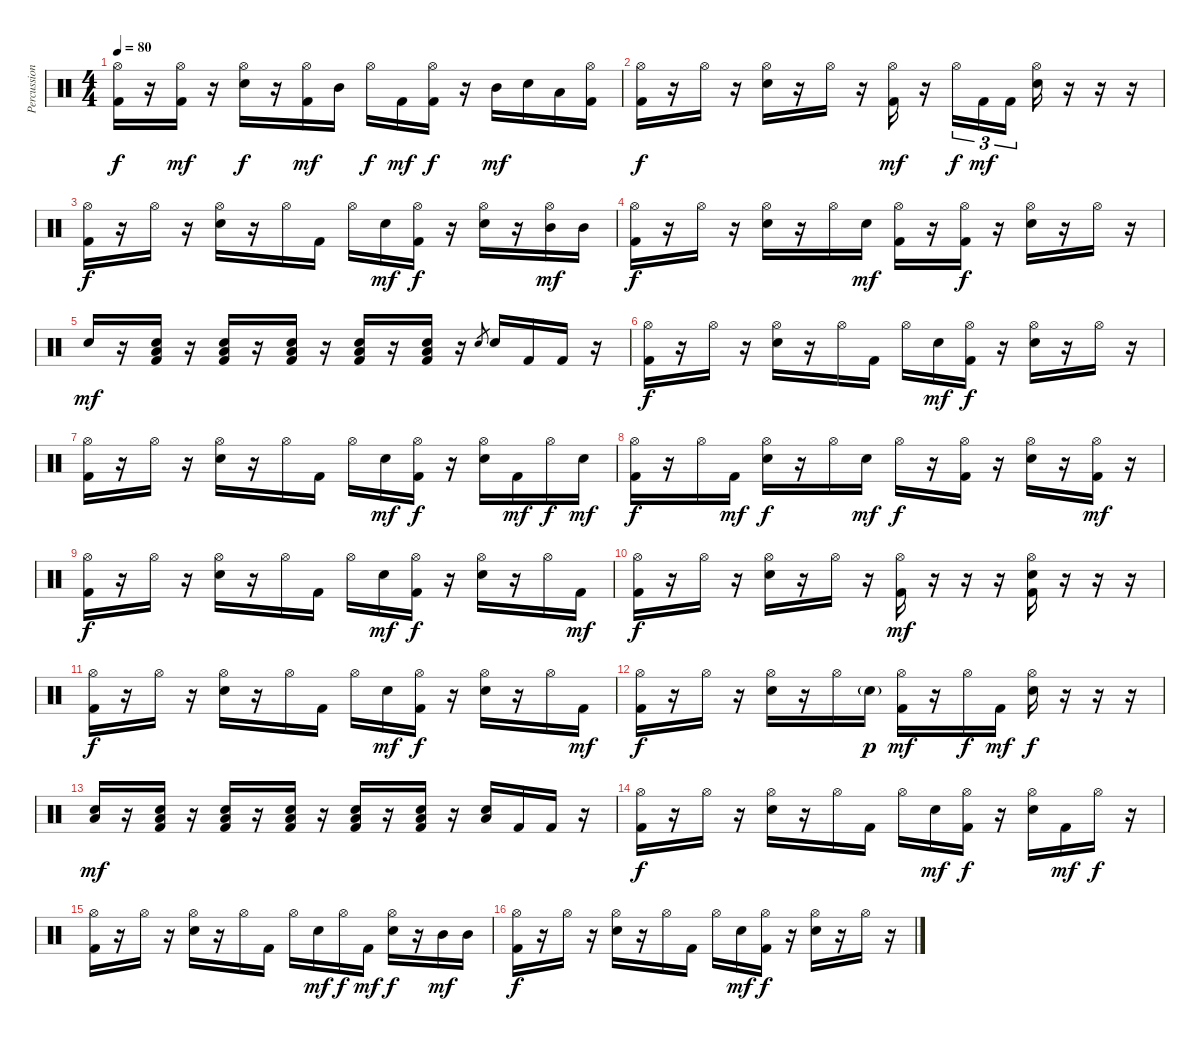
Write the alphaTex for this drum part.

\track ("Percussion" "Percussion") {instrument percussion}
\staff {score}
\articulation defaults
\ts (4 4)
\tempo 80
\clef neutral
\ks c
("Hi-Hat (open)" "Kick (hit) 2").16{dy f} r.16 ("Hi-Hat (open)" "Kick (hit) 2").16{dy mf} r.16 ("Hi-Hat (open)" "Snare (hit) 2").16{dy f} r.16 ("Hi-Hat (open)" "Kick (hit) 2").16{dy mf} "Mid Tom (hit)".16 "Hi-Hat (open)".16{dy f} "Kick (hit) 2".16{dy mf} ("Hi-Hat (open)" "Kick (hit) 2").16{dy f} r.16 "Mid Tom (hit)".16{dy mf} "Snare (hit) 2".16 "Low Tom (hit)".16 ("Hi-Hat (open)" "Kick (hit) 2").16 |
("Hi-Hat (open)" "Kick (hit) 2").16{dy f} r.16 "Hi-Hat (open)".16 r.16 ("Hi-Hat (open)" "Snare (hit) 2").16 r.16 "Hi-Hat (open)".16 r.16 ("Hi-Hat (open)" "Kick (hit) 2").16{dy mf} r.16 "Hi-Hat (open)".16{tu (3 2) dy f} "Kick (hit) 2".16{tu (3 2) dy mf} "Kick (hit) 2".16{tu (3 2)} ("Hi-Hat (open)" "Snare (hit) 2").16 r.16 r.16 r.16 |
("Hi-Hat (open)" "Kick (hit) 2").16{dy f} r.16 "Hi-Hat (open)".16 r.16 ("Hi-Hat (open)" "Snare (hit) 2").16 r.16 "Hi-Hat (open)".16 "Kick (hit) 2".16 "Hi-Hat (open)".16 "Snare (hit) 2".16{dy mf} ("Hi-Hat (open)" "Kick (hit) 2").16{dy f} r.16 ("Hi-Hat (open)" "Snare (hit) 2").16 r.16 ("Hi-Hat (open)" "Mid Tom (hit)").16{dy mf} "Mid Tom (hit)".16 |
("Hi-Hat (open)" "Kick (hit) 2").16{dy f} r.16 "Hi-Hat (open)".16 r.16 ("Hi-Hat (open)" "Snare (hit) 2").16 r.16 "Hi-Hat (open)".16 "Snare (hit) 2".16{dy mf} ("Hi-Hat (open)" "Kick (hit) 2").16 r.16 ("Hi-Hat (open)" "Kick (hit) 2").16{dy f} r.16 ("Hi-Hat (open)" "Snare (hit) 2").16 r.16 "Hi-Hat (open)".16 r.16 |
"Snare (hit) 2".16{dy mf} r.16 ("Snare (hit) 2" "Low Tom (hit)" "Kick (hit) 2").16 r.16 ("Snare (hit) 2" "Low Tom (hit)" "Kick (hit) 2").16 r.16 ("Snare (hit) 2" "Low Tom (hit)" "Kick (hit) 2").16 r.16 ("Snare (hit) 2" "Low Tom (hit)" "Kick (hit) 2").16 r.16 ("Snare (hit) 2" "Low Tom (hit)" "Kick (hit) 2").16 r.16 "Snare (hit) 2".8{gr} "Snare (hit) 2".16 "Kick (hit) 2".16 "Kick (hit) 2".16 r.16 |
("Hi-Hat (open)" "Kick (hit) 2").16{dy f} r.16 "Hi-Hat (open)".16 r.16 ("Hi-Hat (open)" "Snare (hit) 2").16 r.16 "Hi-Hat (open)".16 "Kick (hit) 2".16 "Hi-Hat (open)".16 "Snare (hit) 2".16{dy mf} ("Hi-Hat (open)" "Kick (hit) 2").16{dy f} r.16 ("Hi-Hat (open)" "Snare (hit) 2").16 r.16 "Hi-Hat (open)".16 r.16 |
("Hi-Hat (open)" "Kick (hit) 2").16 r.16 "Hi-Hat (open)".16 r.16 ("Hi-Hat (open)" "Snare (hit) 2").16 r.16 "Hi-Hat (open)".16 "Kick (hit) 2".16 "Hi-Hat (open)".16 "Snare (hit) 2".16{dy mf} ("Hi-Hat (open)" "Kick (hit) 2").16{dy f} r.16 ("Hi-Hat (open)" "Snare (hit) 2").16 "Kick (hit) 2".16{dy mf} "Hi-Hat (open)".16{dy f} "Snare (hit) 2".16{dy mf} |
("Hi-Hat (open)" "Kick (hit) 2").16{dy f} r.16 "Hi-Hat (open)".16 "Kick (hit) 2".16{dy mf} ("Hi-Hat (open)" "Snare (hit) 2").16{dy f} r.16 "Hi-Hat (open)".16 "Snare (hit) 2".16{dy mf} "Hi-Hat (open)".16{dy f} r.16 ("Hi-Hat (open)" "Kick (hit) 2").16 r.16 ("Hi-Hat (open)" "Snare (hit) 2").16 r.16 ("Hi-Hat (open)" "Kick (hit) 2").16{dy mf} r.16 |
("Hi-Hat (open)" "Kick (hit) 2").16{dy f} r.16 "Hi-Hat (open)".16 r.16 ("Hi-Hat (open)" "Snare (hit) 2").16 r.16 "Hi-Hat (open)".16 "Kick (hit) 2".16 "Hi-Hat (open)".16 "Snare (hit) 2".16{dy mf} ("Hi-Hat (open)" "Kick (hit) 2").16{dy f} r.16 ("Hi-Hat (open)" "Snare (hit) 2").16 r.16 "Hi-Hat (open)".16 "Kick (hit) 2".16{dy mf} |
("Hi-Hat (open)" "Kick (hit) 2").16{dy f} r.16 "Hi-Hat (open)".16 r.16 ("Hi-Hat (open)" "Snare (hit) 2").16 r.16 "Hi-Hat (open)".16 r.16 ("Hi-Hat (open)" "Kick (hit) 2").16{dy mf} r.16 r.16 r.16 ("Hi-Hat (open)" "Snare (hit) 2" "Kick (hit) 2").16 r.16 r.16 r.16 |
("Hi-Hat (open)" "Kick (hit) 2").16{dy f} r.16 "Hi-Hat (open)".16 r.16 ("Hi-Hat (open)" "Snare (hit) 2").16 r.16 "Hi-Hat (open)".16 "Kick (hit) 2".16 "Hi-Hat (open)".16 "Snare (hit) 2".16{dy mf} ("Hi-Hat (open)" "Kick (hit) 2").16{dy f} r.16 ("Hi-Hat (open)" "Snare (hit) 2").16 r.16 "Hi-Hat (open)".16 "Kick (hit) 2".16{dy mf} |
("Hi-Hat (open)" "Kick (hit) 2").16{dy f} r.16 "Hi-Hat (open)".16 r.16 ("Hi-Hat (open)" "Snare (hit) 2").16 r.16 "Hi-Hat (open)".16 "Snare (hit) 2"{g}.16{dy p} ("Hi-Hat (open)" "Kick (hit) 2").16{dy mf} r.16 "Hi-Hat (open)".16{dy f} "Kick (hit) 2".16{dy mf} ("Hi-Hat (open)" "Snare (hit) 2").16{dy f} r.16 r.16 r.16 |
("Snare (hit) 2" "Low Tom (hit)").16{dy mf} r.16 ("Snare (hit) 2" "Low Tom (hit)" "Kick (hit) 2").16 r.16 ("Snare (hit) 2" "Low Tom (hit)" "Kick (hit) 2").16 r.16 ("Snare (hit) 2" "Low Tom (hit)" "Kick (hit) 2").16 r.16 ("Snare (hit) 2" "Low Tom (hit)" "Kick (hit) 2").16 r.16 ("Snare (hit) 2" "Low Tom (hit)" "Kick (hit) 2").16 r.16 ("Snare (hit) 2" "Low Tom (hit)").16 "Kick (hit) 2".16 "Kick (hit) 2".16 r.16 |
("Hi-Hat (open)" "Kick (hit) 2").16{dy f} r.16 "Hi-Hat (open)".16 r.16 ("Hi-Hat (open)" "Snare (hit) 2").16 r.16 "Hi-Hat (open)".16 "Kick (hit) 2".16 "Hi-Hat (open)".16 "Snare (hit) 2".16{dy mf} ("Hi-Hat (open)" "Kick (hit) 2").16{dy f} r.16 ("Hi-Hat (open)" "Snare (hit) 2").16 "Kick (hit) 2".16{dy mf} "Hi-Hat (open)".16{dy f} r.16 |
("Hi-Hat (open)" "Kick (hit) 2").16 r.16 "Hi-Hat (open)".16 r.16 ("Hi-Hat (open)" "Snare (hit) 2").16 r.16 "Hi-Hat (open)".16 "Kick (hit) 2".16 "Hi-Hat (open)".16 "Snare (hit) 2".16{dy mf} "Hi-Hat (open)".16{dy f} "Kick (hit) 2".16{dy mf} ("Hi-Hat (open)" "Snare (hit) 2").16{dy f} r.16 "Mid Tom (hit)".16{dy mf} "Mid Tom (hit)".16 |
("Hi-Hat (open)" "Kick (hit) 2").16{dy f} r.16 "Hi-Hat (open)".16 r.16 ("Hi-Hat (open)" "Snare (hit) 2").16 r.16 "Hi-Hat (open)".16 "Kick (hit) 2".16 "Hi-Hat (open)".16 "Snare (hit) 2".16{dy mf} ("Hi-Hat (open)" "Kick (hit) 2").16{dy f} r.16 ("Hi-Hat (open)" "Snare (hit) 2").16 r.16 "Hi-Hat (open)".16 r.16
